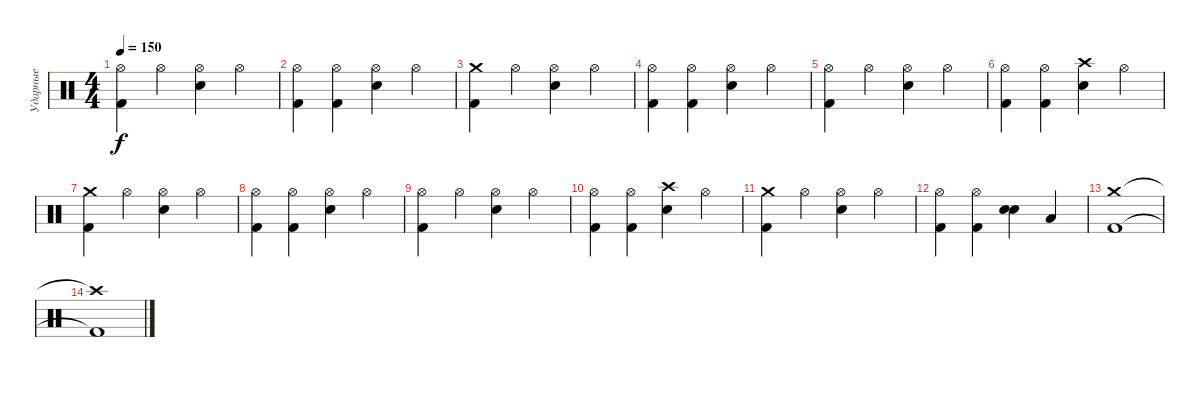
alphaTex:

\track ("Ударные" "Ударные") {instrument percussion}
\staff {score}
\articulation defaults
\ts (4 4)
\tempo 150
\clef neutral
\ks c
("Hi-Hat (open)" "Kick (hit) 2").4{dy f} "Hi-Hat (open)".4 ("Hi-Hat (open)" "Electric Snare (hit)").4 "Hi-Hat (open)".4 |
("Hi-Hat (open)" "Kick (hit) 2").4 ("Hi-Hat (open)" "Kick (hit) 2").4 ("Hi-Hat (open)" "Electric Snare (hit)").4 "Hi-Hat (open)".4 |
("Crash medium (hit)" "Kick (hit) 2").4 "Hi-Hat (open)".4 ("Hi-Hat (open)" "Electric Snare (hit)").4 "Hi-Hat (open)".4 |
("Hi-Hat (open)" "Kick (hit) 2").4 ("Hi-Hat (open)" "Kick (hit) 2").4 ("Hi-Hat (open)" "Electric Snare (hit)").4 "Hi-Hat (open)".4 |
("Hi-Hat (open)" "Kick (hit) 2").4 "Hi-Hat (open)".4 ("Hi-Hat (open)" "Electric Snare (hit)").4 "Hi-Hat (open)".4 |
("Hi-Hat (open)" "Kick (hit) 2").4 ("Hi-Hat (open)" "Kick (hit) 2").4 ("Crash high (hit)" "Electric Snare (hit)").4 "Hi-Hat (open)".4 |
("Crash medium (hit)" "Kick (hit) 2").4 "Hi-Hat (open)".4 ("Hi-Hat (open)" "Electric Snare (hit)").4 "Hi-Hat (open)".4 |
("Hi-Hat (open)" "Kick (hit) 2").4 ("Hi-Hat (open)" "Kick (hit) 2").4 ("Hi-Hat (open)" "Electric Snare (hit)").4 "Hi-Hat (open)".4 |
("Hi-Hat (open)" "Kick (hit) 2").4 "Hi-Hat (open)".4 ("Hi-Hat (open)" "Electric Snare (hit)").4 "Hi-Hat (open)".4 |
("Hi-Hat (open)" "Kick (hit) 2").4 ("Hi-Hat (open)" "Kick (hit) 2").4 ("Crash high (hit)" "Electric Snare (hit)").4 "Hi-Hat (open)".4 |
("Crash medium (hit)" "Kick (hit) 2").4 "Hi-Hat (open)".4 ("Hi-Hat (open)" "Electric Snare (hit)").4 "Hi-Hat (open)".4 |
("Hi-Hat (open)" "Kick (hit) 2").4 ("Hi-Hat (open)" "Kick (hit) 2").4 ("Electric Snare (hit)" "Electric Snare (hit)").4{bu 120} "Low Tom (hit)".4 |
("Crash medium (hit)" "Kick (hit) 2").1 |
("Crash high (hit)"{t} "Kick (hit) 2"{t}).1
